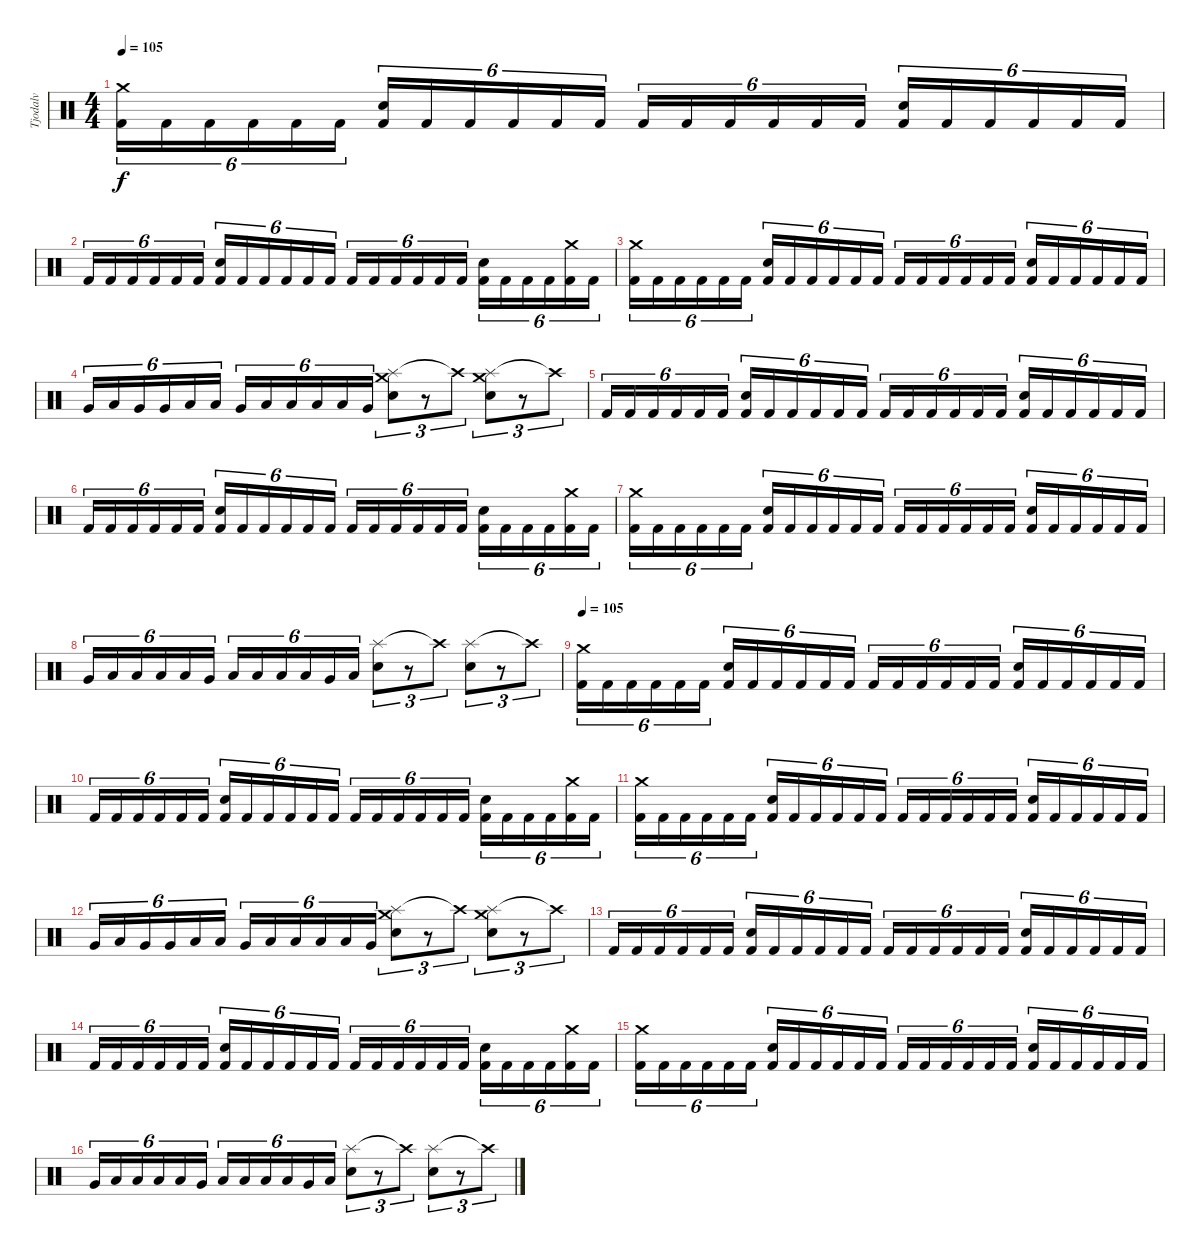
\track ("Tjodalv" "Tjodalv") {instrument percussion}
\staff {score}
\articulation defaults
\ts (4 4)
\tempo 105
\clef neutral
\ks c
("Kick (hit) 2" "Crash medium (hit)").16{tu (6 4) dy f} "Kick (hit) 2".16{tu (6 4)} "Kick (hit) 2".16{tu (6 4)} "Kick (hit) 2".16{tu (6 4)} "Kick (hit) 2".16{tu (6 4)} "Kick (hit) 2".16{tu (6 4)} ("Kick (hit) 2" "Snare (hit) 2").16{tu (6 4)} "Kick (hit) 2".16{tu (6 4)} "Kick (hit) 2".16{tu (6 4)} "Kick (hit) 2".16{tu (6 4)} "Kick (hit) 2".16{tu (6 4)} "Kick (hit) 2".16{tu (6 4)} "Kick (hit) 2".16{tu (6 4)} "Kick (hit) 2".16{tu (6 4)} "Kick (hit) 2".16{tu (6 4)} "Kick (hit) 2".16{tu (6 4)} "Kick (hit) 2".16{tu (6 4)} "Kick (hit) 2".16{tu (6 4)} ("Kick (hit) 2" "Snare (hit) 2").16{tu (6 4)} "Kick (hit) 2".16{tu (6 4)} "Kick (hit) 2".16{tu (6 4)} "Kick (hit) 2".16{tu (6 4)} "Kick (hit) 2".16{tu (6 4)} "Kick (hit) 2".16{tu (6 4)} |
"Kick (hit) 2".16{tu (6 4)} "Kick (hit) 2".16{tu (6 4)} "Kick (hit) 2".16{tu (6 4)} "Kick (hit) 2".16{tu (6 4)} "Kick (hit) 2".16{tu (6 4)} "Kick (hit) 2".16{tu (6 4)} ("Kick (hit) 2" "Snare (hit) 2").16{tu (6 4)} "Kick (hit) 2".16{tu (6 4)} "Kick (hit) 2".16{tu (6 4)} "Kick (hit) 2".16{tu (6 4)} "Kick (hit) 2".16{tu (6 4)} "Kick (hit) 2".16{tu (6 4)} "Kick (hit) 2".16{tu (6 4)} "Kick (hit) 2".16{tu (6 4)} "Kick (hit) 2".16{tu (6 4)} "Kick (hit) 2".16{tu (6 4)} "Kick (hit) 2".16{tu (6 4)} "Kick (hit) 2".16{tu (6 4)} ("Kick (hit) 2" "Snare (hit) 2").16{tu (6 4)} "Kick (hit) 2".16{tu (6 4)} "Kick (hit) 2".16{tu (6 4)} "Kick (hit) 2".16{tu (6 4)} ("Kick (hit) 2" "Crash medium (hit)").16{tu (6 4)} "Kick (hit) 2".16{tu (6 4)} |
("Kick (hit) 2" "Crash medium (hit)").16{tu (6 4)} "Kick (hit) 2".16{tu (6 4)} "Kick (hit) 2".16{tu (6 4)} "Kick (hit) 2".16{tu (6 4)} "Kick (hit) 2".16{tu (6 4)} "Kick (hit) 2".16{tu (6 4)} ("Kick (hit) 2" "Snare (hit) 2").16{tu (6 4)} "Kick (hit) 2".16{tu (6 4)} "Kick (hit) 2".16{tu (6 4)} "Kick (hit) 2".16{tu (6 4)} "Kick (hit) 2".16{tu (6 4)} "Kick (hit) 2".16{tu (6 4)} "Kick (hit) 2".16{tu (6 4)} "Kick (hit) 2".16{tu (6 4)} "Kick (hit) 2".16{tu (6 4)} "Kick (hit) 2".16{tu (6 4)} "Kick (hit) 2".16{tu (6 4)} "Kick (hit) 2".16{tu (6 4)} ("Kick (hit) 2" "Snare (hit) 2").16{tu (6 4)} "Kick (hit) 2".16{tu (6 4)} "Kick (hit) 2".16{tu (6 4)} "Kick (hit) 2".16{tu (6 4)} "Kick (hit) 2".16{tu (6 4)} "Kick (hit) 2".16{tu (6 4)} |
"Very Low Tom (hit)".16{tu (6 4)} "Low Tom (hit)".16{tu (6 4)} "Very Low Tom (hit)".16{tu (6 4)} "Very Low Tom (hit)".16{tu (6 4)} "Low Tom (hit)".16{tu (6 4)} "Low Floor Tom (hit)".16{tu (6 4)} "Very Low Tom (hit)".16{tu (6 4)} "Low Floor Tom (hit)".16{tu (6 4)} "Low Tom (hit)".16{tu (6 4)} "Low Tom (hit)".16{tu (6 4)} "Low Floor Tom (hit)".16{tu (6 4)} "Very Low Tom (hit)".16{tu (6 4)} ("Splash (hit)" "Snare (hit) 2" "Crash medium (hit)").8{tu (3 2)} r.8{tu (3 2)} "Crash high (hit)"{t}.8{tu (3 2)} ("Splash (hit)" "Snare (hit) 2" "Crash medium (hit)").8{tu (3 2)} r.8{tu (3 2)} "Crash high (hit)"{t}.8{tu (3 2)} |
"Kick (hit) 2".16{tu (6 4)} "Kick (hit) 2".16{tu (6 4)} "Kick (hit) 2".16{tu (6 4)} "Kick (hit) 2".16{tu (6 4)} "Kick (hit) 2".16{tu (6 4)} "Kick (hit) 2".16{tu (6 4)} ("Kick (hit) 2" "Snare (hit) 2").16{tu (6 4)} "Kick (hit) 2".16{tu (6 4)} "Kick (hit) 2".16{tu (6 4)} "Kick (hit) 2".16{tu (6 4)} "Kick (hit) 2".16{tu (6 4)} "Kick (hit) 2".16{tu (6 4)} "Kick (hit) 2".16{tu (6 4)} "Kick (hit) 2".16{tu (6 4)} "Kick (hit) 2".16{tu (6 4)} "Kick (hit) 2".16{tu (6 4)} "Kick (hit) 2".16{tu (6 4)} "Kick (hit) 2".16{tu (6 4)} ("Kick (hit) 2" "Snare (hit) 2").16{tu (6 4)} "Kick (hit) 2".16{tu (6 4)} "Kick (hit) 2".16{tu (6 4)} "Kick (hit) 2".16{tu (6 4)} "Kick (hit) 2".16{tu (6 4)} "Kick (hit) 2".16{tu (6 4)} |
"Kick (hit) 2".16{tu (6 4)} "Kick (hit) 2".16{tu (6 4)} "Kick (hit) 2".16{tu (6 4)} "Kick (hit) 2".16{tu (6 4)} "Kick (hit) 2".16{tu (6 4)} "Kick (hit) 2".16{tu (6 4)} ("Kick (hit) 2" "Snare (hit) 2").16{tu (6 4)} "Kick (hit) 2".16{tu (6 4)} "Kick (hit) 2".16{tu (6 4)} "Kick (hit) 2".16{tu (6 4)} "Kick (hit) 2".16{tu (6 4)} "Kick (hit) 2".16{tu (6 4)} "Kick (hit) 2".16{tu (6 4)} "Kick (hit) 2".16{tu (6 4)} "Kick (hit) 2".16{tu (6 4)} "Kick (hit) 2".16{tu (6 4)} "Kick (hit) 2".16{tu (6 4)} "Kick (hit) 2".16{tu (6 4)} ("Kick (hit) 2" "Snare (hit) 2").16{tu (6 4)} "Kick (hit) 2".16{tu (6 4)} "Kick (hit) 2".16{tu (6 4)} "Kick (hit) 2".16{tu (6 4)} ("Kick (hit) 2" "Crash medium (hit)").16{tu (6 4)} "Kick (hit) 2".16{tu (6 4)} |
("Kick (hit) 2" "Crash medium (hit)").16{tu (6 4)} "Kick (hit) 2".16{tu (6 4)} "Kick (hit) 2".16{tu (6 4)} "Kick (hit) 2".16{tu (6 4)} "Kick (hit) 2".16{tu (6 4)} "Kick (hit) 2".16{tu (6 4)} ("Kick (hit) 2" "Snare (hit) 2").16{tu (6 4)} "Kick (hit) 2".16{tu (6 4)} "Kick (hit) 2".16{tu (6 4)} "Kick (hit) 2".16{tu (6 4)} "Kick (hit) 2".16{tu (6 4)} "Kick (hit) 2".16{tu (6 4)} "Kick (hit) 2".16{tu (6 4)} "Kick (hit) 2".16{tu (6 4)} "Kick (hit) 2".16{tu (6 4)} "Kick (hit) 2".16{tu (6 4)} "Kick (hit) 2".16{tu (6 4)} "Kick (hit) 2".16{tu (6 4)} ("Kick (hit) 2" "Snare (hit) 2").16{tu (6 4)} "Kick (hit) 2".16{tu (6 4)} "Kick (hit) 2".16{tu (6 4)} "Kick (hit) 2".16{tu (6 4)} "Kick (hit) 2".16{tu (6 4)} "Kick (hit) 2".16{tu (6 4)} |
"Very Low Tom (hit)".16{tu (6 4)} "Low Floor Tom (hit)".16{tu (6 4)} "Low Tom (hit)".16{tu (6 4)} "Low Tom (hit)".16{tu (6 4)} "Low Tom (hit)".16{tu (6 4)} "Very Low Tom (hit)".16{tu (6 4)} "Low Floor Tom (hit)".16{tu (6 4)} "Low Tom (hit)".16{tu (6 4)} "Low Tom (hit)".16{tu (6 4)} "Low Tom (hit)".16{tu (6 4)} "Very Low Tom (hit)".16{tu (6 4)} "Low Tom (hit)".16{tu (6 4)} ("Splash (hit)" "Snare (hit) 2").8{tu (3 2)} r.8{tu (3 2)} "Crash high (hit)"{t}.8{tu (3 2)} ("Splash (hit)" "Snare (hit) 2").8{tu (3 2)} r.8{tu (3 2)} "Crash high (hit)"{t}.8{tu (3 2)} |
\tempo 105
("Kick (hit) 2" "Crash medium (hit)").16{tu (6 4)} "Kick (hit) 2".16{tu (6 4)} "Kick (hit) 2".16{tu (6 4)} "Kick (hit) 2".16{tu (6 4)} "Kick (hit) 2".16{tu (6 4)} "Kick (hit) 2".16{tu (6 4)} ("Kick (hit) 2" "Snare (hit) 2").16{tu (6 4)} "Kick (hit) 2".16{tu (6 4)} "Kick (hit) 2".16{tu (6 4)} "Kick (hit) 2".16{tu (6 4)} "Kick (hit) 2".16{tu (6 4)} "Kick (hit) 2".16{tu (6 4)} "Kick (hit) 2".16{tu (6 4)} "Kick (hit) 2".16{tu (6 4)} "Kick (hit) 2".16{tu (6 4)} "Kick (hit) 2".16{tu (6 4)} "Kick (hit) 2".16{tu (6 4)} "Kick (hit) 2".16{tu (6 4)} ("Kick (hit) 2" "Snare (hit) 2").16{tu (6 4)} "Kick (hit) 2".16{tu (6 4)} "Kick (hit) 2".16{tu (6 4)} "Kick (hit) 2".16{tu (6 4)} "Kick (hit) 2".16{tu (6 4)} "Kick (hit) 2".16{tu (6 4)} |
"Kick (hit) 2".16{tu (6 4)} "Kick (hit) 2".16{tu (6 4)} "Kick (hit) 2".16{tu (6 4)} "Kick (hit) 2".16{tu (6 4)} "Kick (hit) 2".16{tu (6 4)} "Kick (hit) 2".16{tu (6 4)} ("Kick (hit) 2" "Snare (hit) 2").16{tu (6 4)} "Kick (hit) 2".16{tu (6 4)} "Kick (hit) 2".16{tu (6 4)} "Kick (hit) 2".16{tu (6 4)} "Kick (hit) 2".16{tu (6 4)} "Kick (hit) 2".16{tu (6 4)} "Kick (hit) 2".16{tu (6 4)} "Kick (hit) 2".16{tu (6 4)} "Kick (hit) 2".16{tu (6 4)} "Kick (hit) 2".16{tu (6 4)} "Kick (hit) 2".16{tu (6 4)} "Kick (hit) 2".16{tu (6 4)} ("Kick (hit) 2" "Snare (hit) 2").16{tu (6 4)} "Kick (hit) 2".16{tu (6 4)} "Kick (hit) 2".16{tu (6 4)} "Kick (hit) 2".16{tu (6 4)} ("Kick (hit) 2" "Crash medium (hit)").16{tu (6 4)} "Kick (hit) 2".16{tu (6 4)} |
("Kick (hit) 2" "Crash medium (hit)").16{tu (6 4)} "Kick (hit) 2".16{tu (6 4)} "Kick (hit) 2".16{tu (6 4)} "Kick (hit) 2".16{tu (6 4)} "Kick (hit) 2".16{tu (6 4)} "Kick (hit) 2".16{tu (6 4)} ("Kick (hit) 2" "Snare (hit) 2").16{tu (6 4)} "Kick (hit) 2".16{tu (6 4)} "Kick (hit) 2".16{tu (6 4)} "Kick (hit) 2".16{tu (6 4)} "Kick (hit) 2".16{tu (6 4)} "Kick (hit) 2".16{tu (6 4)} "Kick (hit) 2".16{tu (6 4)} "Kick (hit) 2".16{tu (6 4)} "Kick (hit) 2".16{tu (6 4)} "Kick (hit) 2".16{tu (6 4)} "Kick (hit) 2".16{tu (6 4)} "Kick (hit) 2".16{tu (6 4)} ("Kick (hit) 2" "Snare (hit) 2").16{tu (6 4)} "Kick (hit) 2".16{tu (6 4)} "Kick (hit) 2".16{tu (6 4)} "Kick (hit) 2".16{tu (6 4)} "Kick (hit) 2".16{tu (6 4)} "Kick (hit) 2".16{tu (6 4)} |
"Very Low Tom (hit)".16{tu (6 4)} "Low Tom (hit)".16{tu (6 4)} "Very Low Tom (hit)".16{tu (6 4)} "Very Low Tom (hit)".16{tu (6 4)} "Low Tom (hit)".16{tu (6 4)} "Low Floor Tom (hit)".16{tu (6 4)} "Very Low Tom (hit)".16{tu (6 4)} "Low Floor Tom (hit)".16{tu (6 4)} "Low Tom (hit)".16{tu (6 4)} "Low Tom (hit)".16{tu (6 4)} "Low Floor Tom (hit)".16{tu (6 4)} "Very Low Tom (hit)".16{tu (6 4)} ("Splash (hit)" "Snare (hit) 2" "Crash medium (hit)").8{tu (3 2)} r.8{tu (3 2)} "Crash high (hit)"{t}.8{tu (3 2)} ("Splash (hit)" "Snare (hit) 2" "Crash medium (hit)").8{tu (3 2)} r.8{tu (3 2)} "Crash high (hit)"{t}.8{tu (3 2)} |
"Kick (hit) 2".16{tu (6 4)} "Kick (hit) 2".16{tu (6 4)} "Kick (hit) 2".16{tu (6 4)} "Kick (hit) 2".16{tu (6 4)} "Kick (hit) 2".16{tu (6 4)} "Kick (hit) 2".16{tu (6 4)} ("Kick (hit) 2" "Snare (hit) 2").16{tu (6 4)} "Kick (hit) 2".16{tu (6 4)} "Kick (hit) 2".16{tu (6 4)} "Kick (hit) 2".16{tu (6 4)} "Kick (hit) 2".16{tu (6 4)} "Kick (hit) 2".16{tu (6 4)} "Kick (hit) 2".16{tu (6 4)} "Kick (hit) 2".16{tu (6 4)} "Kick (hit) 2".16{tu (6 4)} "Kick (hit) 2".16{tu (6 4)} "Kick (hit) 2".16{tu (6 4)} "Kick (hit) 2".16{tu (6 4)} ("Kick (hit) 2" "Snare (hit) 2").16{tu (6 4)} "Kick (hit) 2".16{tu (6 4)} "Kick (hit) 2".16{tu (6 4)} "Kick (hit) 2".16{tu (6 4)} "Kick (hit) 2".16{tu (6 4)} "Kick (hit) 2".16{tu (6 4)} |
"Kick (hit) 2".16{tu (6 4)} "Kick (hit) 2".16{tu (6 4)} "Kick (hit) 2".16{tu (6 4)} "Kick (hit) 2".16{tu (6 4)} "Kick (hit) 2".16{tu (6 4)} "Kick (hit) 2".16{tu (6 4)} ("Kick (hit) 2" "Snare (hit) 2").16{tu (6 4)} "Kick (hit) 2".16{tu (6 4)} "Kick (hit) 2".16{tu (6 4)} "Kick (hit) 2".16{tu (6 4)} "Kick (hit) 2".16{tu (6 4)} "Kick (hit) 2".16{tu (6 4)} "Kick (hit) 2".16{tu (6 4)} "Kick (hit) 2".16{tu (6 4)} "Kick (hit) 2".16{tu (6 4)} "Kick (hit) 2".16{tu (6 4)} "Kick (hit) 2".16{tu (6 4)} "Kick (hit) 2".16{tu (6 4)} ("Kick (hit) 2" "Snare (hit) 2").16{tu (6 4)} "Kick (hit) 2".16{tu (6 4)} "Kick (hit) 2".16{tu (6 4)} "Kick (hit) 2".16{tu (6 4)} ("Kick (hit) 2" "Crash medium (hit)").16{tu (6 4)} "Kick (hit) 2".16{tu (6 4)} |
("Kick (hit) 2" "Crash medium (hit)").16{tu (6 4)} "Kick (hit) 2".16{tu (6 4)} "Kick (hit) 2".16{tu (6 4)} "Kick (hit) 2".16{tu (6 4)} "Kick (hit) 2".16{tu (6 4)} "Kick (hit) 2".16{tu (6 4)} ("Kick (hit) 2" "Snare (hit) 2").16{tu (6 4)} "Kick (hit) 2".16{tu (6 4)} "Kick (hit) 2".16{tu (6 4)} "Kick (hit) 2".16{tu (6 4)} "Kick (hit) 2".16{tu (6 4)} "Kick (hit) 2".16{tu (6 4)} "Kick (hit) 2".16{tu (6 4)} "Kick (hit) 2".16{tu (6 4)} "Kick (hit) 2".16{tu (6 4)} "Kick (hit) 2".16{tu (6 4)} "Kick (hit) 2".16{tu (6 4)} "Kick (hit) 2".16{tu (6 4)} ("Kick (hit) 2" "Snare (hit) 2").16{tu (6 4)} "Kick (hit) 2".16{tu (6 4)} "Kick (hit) 2".16{tu (6 4)} "Kick (hit) 2".16{tu (6 4)} "Kick (hit) 2".16{tu (6 4)} "Kick (hit) 2".16{tu (6 4)} |
"Very Low Tom (hit)".16{tu (6 4)} "Low Floor Tom (hit)".16{tu (6 4)} "Low Tom (hit)".16{tu (6 4)} "Low Tom (hit)".16{tu (6 4)} "Low Tom (hit)".16{tu (6 4)} "Very Low Tom (hit)".16{tu (6 4)} "Low Floor Tom (hit)".16{tu (6 4)} "Low Tom (hit)".16{tu (6 4)} "Low Tom (hit)".16{tu (6 4)} "Low Tom (hit)".16{tu (6 4)} "Very Low Tom (hit)".16{tu (6 4)} "Low Tom (hit)".16{tu (6 4)} ("Splash (hit)" "Snare (hit) 2").8{tu (3 2)} r.8{tu (3 2)} "Crash high (hit)"{t}.8{tu (3 2)} ("Splash (hit)" "Snare (hit) 2").8{tu (3 2)} r.8{tu (3 2)} "Crash high (hit)"{t}.8{tu (3 2)}
